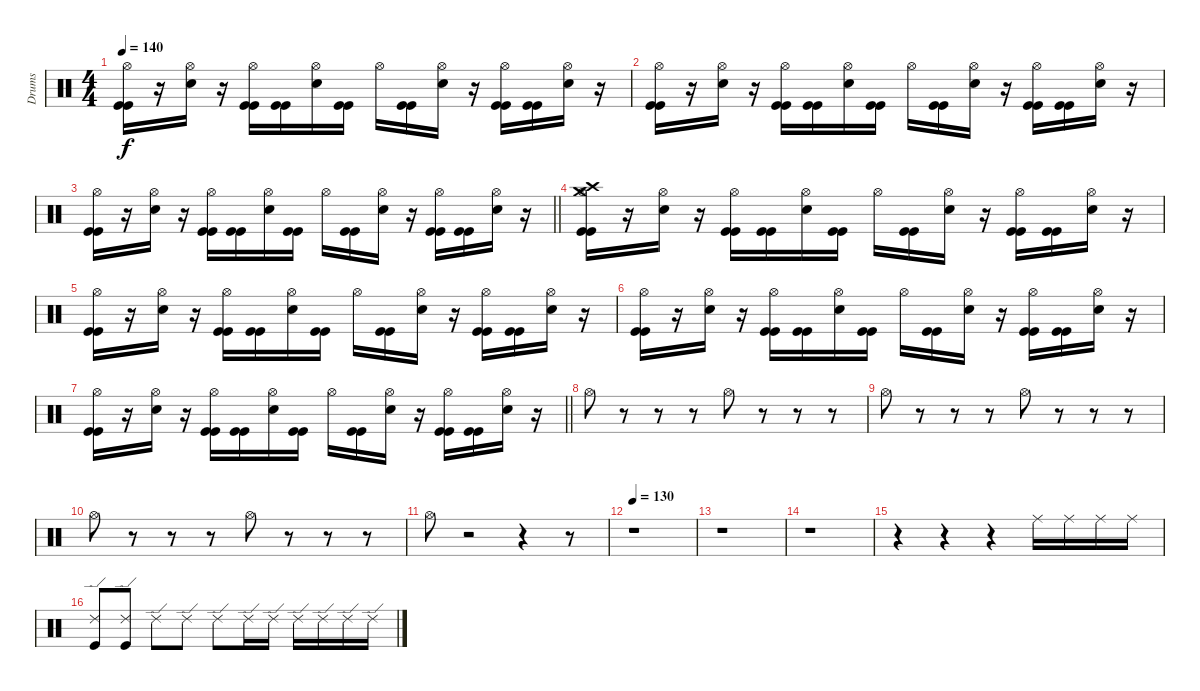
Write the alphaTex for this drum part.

\track ("Drums" "Drums") {instrument percussion}
\staff {score}
\articulation defaults
\ts (4 4)
\tempo 140
\clef neutral
\ks c
("Hi-Hat (open)" "Kick (hit)" "Kick (hit)").16{dy f} r.16 ("Hi-Hat (open)" "Snare (hit) 2").16 r.16 ("Hi-Hat (open)" "Kick (hit)" "Kick (hit)").16 ("Kick (hit)" "Kick (hit)").16 ("Hi-Hat (open)" "Snare (hit) 2").16 ("Kick (hit)" "Kick (hit)").16 "Hi-Hat (open)".16 ("Kick (hit)" "Kick (hit)").16 ("Hi-Hat (open)" "Snare (hit) 2").16 r.16 ("Hi-Hat (open)" "Kick (hit)" "Kick (hit)").16 ("Kick (hit)" "Kick (hit)").16 ("Hi-Hat (open)" "Snare (hit) 2").16 r.16 |
("Hi-Hat (open)" "Kick (hit)" "Kick (hit)").16 r.16 ("Hi-Hat (open)" "Snare (hit) 2").16 r.16 ("Hi-Hat (open)" "Kick (hit)" "Kick (hit)").16 ("Kick (hit)" "Kick (hit)").16 ("Hi-Hat (open)" "Snare (hit) 2").16 ("Kick (hit)" "Kick (hit)").16 "Hi-Hat (open)".16 ("Kick (hit)" "Kick (hit)").16 ("Hi-Hat (open)" "Snare (hit) 2").16 r.16 ("Hi-Hat (open)" "Kick (hit)" "Kick (hit)").16 ("Kick (hit)" "Kick (hit)").16 ("Hi-Hat (open)" "Snare (hit) 2").16 r.16 |
\barLineRight lightlight
("Hi-Hat (open)" "Kick (hit)" "Kick (hit)").16 r.16 ("Hi-Hat (open)" "Snare (hit) 2").16 r.16 ("Hi-Hat (open)" "Kick (hit)" "Kick (hit)").16 ("Kick (hit)" "Kick (hit)").16 ("Hi-Hat (open)" "Snare (hit) 2").16 ("Kick (hit)" "Kick (hit)").16 "Hi-Hat (open)".16 ("Kick (hit)" "Kick (hit)").16 ("Hi-Hat (open)" "Snare (hit) 2").16 r.16 ("Hi-Hat (open)" "Kick (hit)" "Kick (hit)").16 ("Kick (hit)" "Kick (hit)").16 ("Hi-Hat (open)" "Snare (hit) 2").16 r.16 |
("Crash medium (hit)" "Crash high (hit)" "Hi-Hat (open)" "Kick (hit)" "Kick (hit)").16 r.16 ("Hi-Hat (open)" "Snare (hit) 2").16 r.16 ("Hi-Hat (open)" "Kick (hit)" "Kick (hit)").16 ("Kick (hit)" "Kick (hit)").16 ("Hi-Hat (open)" "Snare (hit) 2").16 ("Kick (hit)" "Kick (hit)").16 "Hi-Hat (open)".16 ("Kick (hit)" "Kick (hit)").16 ("Hi-Hat (open)" "Snare (hit) 2").16 r.16 ("Hi-Hat (open)" "Kick (hit)" "Kick (hit)").16 ("Kick (hit)" "Kick (hit)").16 ("Hi-Hat (open)" "Snare (hit) 2").16 r.16 |
("Hi-Hat (open)" "Kick (hit)" "Kick (hit)").16 r.16 ("Hi-Hat (open)" "Snare (hit) 2").16 r.16 ("Hi-Hat (open)" "Kick (hit)" "Kick (hit)").16 ("Kick (hit)" "Kick (hit)").16 ("Hi-Hat (open)" "Snare (hit) 2").16 ("Kick (hit)" "Kick (hit)").16 "Hi-Hat (open)".16 ("Kick (hit)" "Kick (hit)").16 ("Hi-Hat (open)" "Snare (hit) 2").16 r.16 ("Hi-Hat (open)" "Kick (hit)" "Kick (hit)").16 ("Kick (hit)" "Kick (hit)").16 ("Hi-Hat (open)" "Snare (hit) 2").16 r.16 |
("Hi-Hat (open)" "Kick (hit)" "Kick (hit)").16 r.16 ("Hi-Hat (open)" "Snare (hit) 2").16 r.16 ("Hi-Hat (open)" "Kick (hit)" "Kick (hit)").16 ("Kick (hit)" "Kick (hit)").16 ("Hi-Hat (open)" "Snare (hit) 2").16 ("Kick (hit)" "Kick (hit)").16 "Hi-Hat (open)".16 ("Kick (hit)" "Kick (hit)").16 ("Hi-Hat (open)" "Snare (hit) 2").16 r.16 ("Hi-Hat (open)" "Kick (hit)" "Kick (hit)").16 ("Kick (hit)" "Kick (hit)").16 ("Hi-Hat (open)" "Snare (hit) 2").16 r.16 |
\barLineRight lightlight
("Hi-Hat (open)" "Kick (hit)" "Kick (hit)").16 r.16 ("Hi-Hat (open)" "Snare (hit) 2").16 r.16 ("Hi-Hat (open)" "Kick (hit)" "Kick (hit)").16 ("Kick (hit)" "Kick (hit)").16 ("Hi-Hat (open)" "Snare (hit) 2").16 ("Kick (hit)" "Kick (hit)").16 "Hi-Hat (open)".16 ("Kick (hit)" "Kick (hit)").16 ("Hi-Hat (open)" "Snare (hit) 2").16 r.16 ("Hi-Hat (open)" "Kick (hit)" "Kick (hit)").16 ("Kick (hit)" "Kick (hit)").16 ("Hi-Hat (open)" "Snare (hit) 2").16 r.16 |
"Hi-Hat (open)".8 r.8 r.8 r.8 "Hi-Hat (open)".8 r.8 r.8 r.8 |
"Hi-Hat (open)".8 r.8 r.8 r.8 "Hi-Hat (open)".8 r.8 r.8 r.8 |
"Hi-Hat (open)".8 r.8 r.8 r.8 "Hi-Hat (open)".8 r.8 r.8 r.8 |
"Hi-Hat (open)".8 r.2 r.4 r.8 |
\tempo 130
r.1 |
r.1 |
r.1 |
r.4 r.4 r.4 "Ride (middle)".16 "Ride (middle)".16 "Ride (middle)".16 "Ride (middle)".16 |
("Ride (edge) 2" "Kick (hit)").8 ("Ride (edge) 2" "Kick (hit)").8 "Ride (edge) 2".8 "Ride (edge) 2".8 "Ride (edge) 2".8 "Ride (edge) 2".16 "Ride (edge) 2".16 "Ride (edge) 2".16 "Ride (edge) 2".16 "Ride (edge) 2".16 "Ride (edge) 2".16
